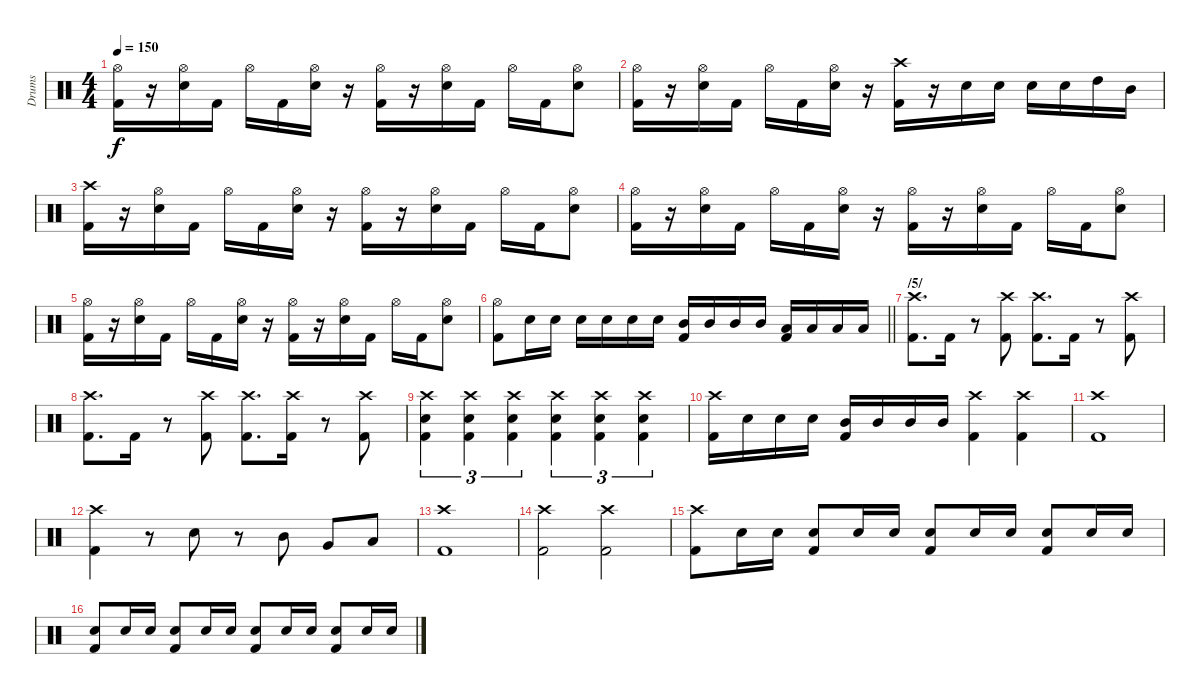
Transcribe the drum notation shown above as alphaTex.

\track ("Drums" "Drums") {instrument percussion}
\staff {score}
\articulation defaults
\ts (4 4)
\tempo 150
\clef neutral
\ks c
("Hi-Hat (open)" "Kick (hit) 2").16{dy f} r.16 ("Hi-Hat (open)" "Electric Snare (hit)").16 "Kick (hit) 2".16 "Hi-Hat (open)".16 "Kick (hit) 2".16 ("Hi-Hat (open)" "Electric Snare (hit)").16 r.16 ("Hi-Hat (open)" "Kick (hit) 2").16 r.16 ("Hi-Hat (open)" "Electric Snare (hit)").16 "Kick (hit) 2".16 "Hi-Hat (open)".16 "Kick (hit) 2".16 ("Hi-Hat (open)" "Electric Snare (hit)").8 |
("Hi-Hat (open)" "Kick (hit) 2").16 r.16 ("Hi-Hat (open)" "Electric Snare (hit)").16 "Kick (hit) 2".16 "Hi-Hat (open)".16 "Kick (hit) 2".16 ("Hi-Hat (open)" "Electric Snare (hit)").16 r.16 ("Crash high (hit)" "Kick (hit) 2").16 r.16 "Electric Snare (hit)".16 "Electric Snare (hit)".16 "Electric Snare (hit)".16 "Electric Snare (hit)".16 "High Tom (hit)".16 "Mid Tom (hit)".16 |
("Crash high (hit)" "Kick (hit) 2").16 r.16 ("Hi-Hat (open)" "Electric Snare (hit)").16 "Kick (hit) 2".16 "Hi-Hat (open)".16 "Kick (hit) 2".16 ("Hi-Hat (open)" "Electric Snare (hit)").16 r.16 ("Hi-Hat (open)" "Kick (hit) 2").16 r.16 ("Hi-Hat (open)" "Electric Snare (hit)").16 "Kick (hit) 2".16 "Hi-Hat (open)".16 "Kick (hit) 2".16 ("Hi-Hat (open)" "Electric Snare (hit)").8 |
("Hi-Hat (open)" "Kick (hit) 2").16 r.16 ("Hi-Hat (open)" "Electric Snare (hit)").16 "Kick (hit) 2".16 "Hi-Hat (open)".16 "Kick (hit) 2".16 ("Hi-Hat (open)" "Electric Snare (hit)").16 r.16 ("Hi-Hat (open)" "Kick (hit) 2").16 r.16 ("Hi-Hat (open)" "Electric Snare (hit)").16 "Kick (hit) 2".16 "Hi-Hat (open)".16 "Kick (hit) 2".16 ("Hi-Hat (open)" "Electric Snare (hit)").8 |
("Hi-Hat (open)" "Kick (hit) 2").16 r.16 ("Hi-Hat (open)" "Electric Snare (hit)").16 "Kick (hit) 2".16 "Hi-Hat (open)".16 "Kick (hit) 2".16 ("Hi-Hat (open)" "Electric Snare (hit)").16 r.16 ("Hi-Hat (open)" "Kick (hit) 2").16 r.16 ("Hi-Hat (open)" "Electric Snare (hit)").16 "Kick (hit) 2".16 "Hi-Hat (open)".16 "Kick (hit) 2".16 ("Hi-Hat (open)" "Electric Snare (hit)").8 |
\barLineRight lightlight
("Hi-Hat (open)" "Kick (hit) 2").8 "Electric Snare (hit)".16 "Electric Snare (hit)".16 "Electric Snare (hit)".16 "Electric Snare (hit)".16 "Electric Snare (hit)".16 "Electric Snare (hit)".16 ("Mid Tom (hit)" "Kick (hit) 2").16 "Mid Tom (hit)".16 "Mid Tom (hit)".16 "Mid Tom (hit)".16 ("Low Floor Tom (hit)" "Kick (hit) 2").16 "Low Floor Tom (hit)".16 "Low Floor Tom (hit)".16 "Low Floor Tom (hit)".16 |
\section ("" "/5/")
("Crash high (hit)" "Kick (hit) 2").8{d} "Kick (hit) 2".16 r.8 ("Crash high (hit)" "Kick (hit) 2").8 ("Crash high (hit)" "Kick (hit) 2").8{d} "Kick (hit) 2".16 r.8 ("Crash high (hit)" "Kick (hit) 2").8 |
("Crash high (hit)" "Kick (hit) 2").8{d} "Kick (hit) 2".16 r.8 ("Crash high (hit)" "Kick (hit) 2").8 ("Crash high (hit)" "Kick (hit) 2").8{d} ("Crash high (hit)" "Kick (hit) 2").16 r.8 ("Crash high (hit)" "Kick (hit) 2").8 |
("Crash high (hit)" "Electric Snare (hit)" "Kick (hit) 2").4{tu (3 2)} ("Crash high (hit)" "Electric Snare (hit)" "Kick (hit) 2").4{tu (3 2)} ("Crash high (hit)" "Electric Snare (hit)" "Kick (hit) 2").4{tu (3 2)} ("Crash high (hit)" "Electric Snare (hit)" "Kick (hit) 2").4{tu (3 2)} ("Crash high (hit)" "Electric Snare (hit)" "Kick (hit) 2").4{tu (3 2)} ("Crash high (hit)" "Electric Snare (hit)" "Kick (hit) 2").4{tu (3 2)} |
("Crash high (hit)" "Kick (hit) 2").16 "Electric Snare (hit)".16 "Electric Snare (hit)".16 "Electric Snare (hit)".16 ("Mid Tom (hit)" "Kick (hit) 2").16 "Mid Tom (hit)".16 "Mid Tom (hit)".16 "Mid Tom (hit)".16 ("Crash high (hit)" "Kick (hit) 2").4 ("Crash high (hit)" "Kick (hit) 2").4 |
("Crash high (hit)" "Kick (hit) 2").1 |
("Crash high (hit)" "Kick (hit) 2").4 r.8 "Electric Snare (hit)".8 r.8 "Mid Tom (hit)".8 "Very Low Tom (hit)".8 "Low Floor Tom (hit)".8 |
("Crash high (hit)" "Kick (hit) 2").1 |
("Crash high (hit)" "Kick (hit) 2").2 ("Crash high (hit)" "Kick (hit) 2").2 |
("Crash high (hit)" "Kick (hit) 2").8 "Electric Snare (hit)".16 "Electric Snare (hit)".16 ("Electric Snare (hit)" "Kick (hit) 2").8 "Electric Snare (hit)".16 "Electric Snare (hit)".16 ("Electric Snare (hit)" "Kick (hit) 2").8 "Electric Snare (hit)".16 "Electric Snare (hit)".16 ("Electric Snare (hit)" "Kick (hit) 2").8 "Electric Snare (hit)".16 "Electric Snare (hit)".16 |
("Electric Snare (hit)" "Kick (hit) 2").8 "Electric Snare (hit)".16 "Electric Snare (hit)".16 ("Electric Snare (hit)" "Kick (hit) 2").8 "Electric Snare (hit)".16 "Electric Snare (hit)".16 ("Electric Snare (hit)" "Kick (hit) 2").8 "Electric Snare (hit)".16 "Electric Snare (hit)".16 ("Electric Snare (hit)" "Kick (hit) 2").8 "Electric Snare (hit)".16 "Electric Snare (hit)".16
